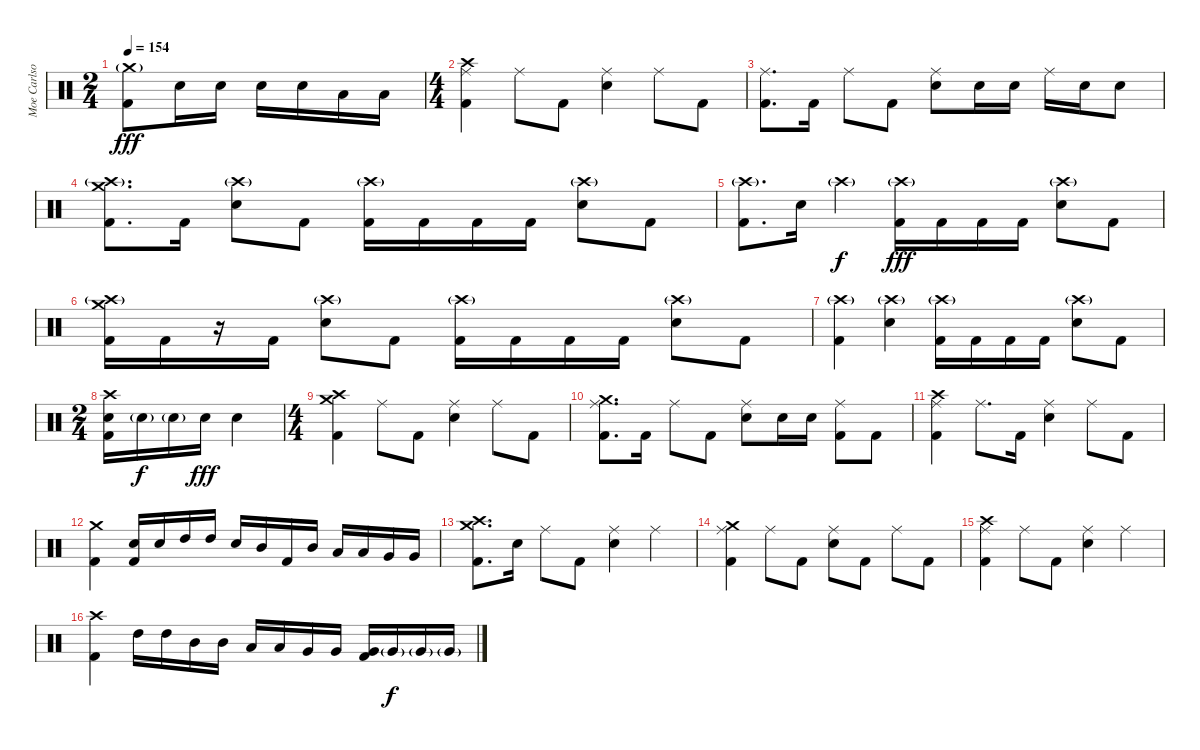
\track ("Moe Carlson" "Moe Carlso") {instrument percussion}
\staff {score}
\articulation defaults
\ts (2 4)
\tempo 154
\clef neutral
\ks c
("Crash medium (hit)"{g} "Kick (hit) 2").8{dy fff} "Electric Snare (hit)".16 "Electric Snare (hit)".16 "Electric Snare (hit)".16 "Electric Snare (hit)".16 "Low Tom (hit)".16 "Low Tom (hit)".16 |
\ts (4 4)
("Crash high (hit)" "Ride (middle)" "Kick (hit) 2").4 "Ride (middle)".8 "Kick (hit) 2".8 ("Ride (middle)" "Electric Snare (hit)").4 "Ride (middle)".8 "Kick (hit) 2".8 |
("Ride (middle)" "Kick (hit) 2").8{d} "Kick (hit) 2".16 "Ride (middle)".8 "Kick (hit) 2".8 ("Ride (middle)" "Electric Snare (hit)").8 "Electric Snare (hit)".16 "Electric Snare (hit)".16 "Ride (middle)".16 "Electric Snare (hit)".16 "Electric Snare (hit)".8 |
("Crash high (hit)"{g} "Crash medium (hit)" "Kick (hit) 2").8{d} "Kick (hit) 2".16 ("Crash high (hit)"{g} "Electric Snare (hit)").8 "Kick (hit) 2".8 ("Crash high (hit)"{g} "Kick (hit) 2").16 "Kick (hit) 2".16 "Kick (hit) 2".16 "Kick (hit) 2".16 ("Crash high (hit)"{g} "Electric Snare (hit)").8 "Kick (hit) 2".8 |
("Crash high (hit)"{g} "Kick (hit) 2").8{d} "Electric Snare (hit)".16 "Crash high (hit)"{g}.4{dy f} ("Crash high (hit)"{g} "Kick (hit) 2").16{dy fff} "Kick (hit) 2".16 "Kick (hit) 2".16 "Kick (hit) 2".16 ("Crash high (hit)"{g} "Electric Snare (hit)").8 "Kick (hit) 2".8 |
("Crash high (hit)"{g} "Crash medium (hit)" "Kick (hit) 2").16 "Kick (hit) 2".16 r.16 "Kick (hit) 2".16 ("Crash high (hit)"{g} "Electric Snare (hit)").8 "Kick (hit) 2".8 ("Crash high (hit)"{g} "Kick (hit) 2").16 "Kick (hit) 2".16 "Kick (hit) 2".16 "Kick (hit) 2".16 ("Crash high (hit)"{g} "Electric Snare (hit)").8 "Kick (hit) 2".8 |
("Crash high (hit)"{g} "Kick (hit) 2").4 ("Crash high (hit)"{g} "Electric Snare (hit)").4 ("Crash high (hit)"{g} "Kick (hit) 2").16 "Kick (hit) 2".16 "Kick (hit) 2".16 "Kick (hit) 2".16 ("Crash high (hit)"{g} "Electric Snare (hit)").8 "Kick (hit) 2".8 |
\ts (2 4)
("Crash high (hit)" "Electric Snare (hit)" "Kick (hit) 2").16 "Electric Snare (hit)"{g}.16{dy f} "Electric Snare (hit)"{g}.16 "Electric Snare (hit)".16{dy fff} "Electric Snare (hit)".4 |
\ts (4 4)
("Crash high (hit)" "Crash medium (hit)" "Kick (hit) 2").4 "Ride (middle)".8 "Kick (hit) 2".8 ("Ride (middle)" "Electric Snare (hit)").4 "Ride (middle)".8 "Kick (hit) 2".8 |
("Crash medium (hit)" "Ride (middle)" "Kick (hit) 2").8{d} "Kick (hit) 2".16 "Ride (middle)".8 "Kick (hit) 2".8 ("Ride (middle)" "Electric Snare (hit)").8 "Electric Snare (hit)".16 "Electric Snare (hit)".16 ("Ride (middle)" "Kick (hit) 2").8 "Kick (hit) 2".8 |
("Crash high (hit)" "Ride (middle)" "Kick (hit) 2").4 "Ride (middle)".8{d} "Kick (hit) 2".16 ("Ride (middle)" "Electric Snare (hit)").4 "Ride (middle)".8 "Kick (hit) 2".8 |
("Crash medium (hit)" "Kick (hit) 2").4 ("Electric Snare (hit)" "Kick (hit) 2").16 "Electric Snare (hit)".16 "High Tom (hit)".16 "High Tom (hit)".16 "Electric Snare (hit)".16 "Mid Tom (hit)".16 "Kick (hit) 2".16 "Mid Tom (hit)".16 "Low Tom (hit)".16 "Low Tom (hit)".16 "Very Low Tom (hit)".16 "Very Low Tom (hit)".16 |
("Crash high (hit)" "Crash medium (hit)" "Kick (hit) 2").8{d} "Electric Snare (hit)".16 "Ride (middle)".8 "Kick (hit) 2".8 ("Ride (middle)" "Electric Snare (hit)").4 "Ride (middle)".4 |
("Crash medium (hit)" "Ride (middle)" "Kick (hit) 2").4 "Ride (middle)".8 "Kick (hit) 2".8 ("Ride (middle)" "Electric Snare (hit)").8 "Kick (hit) 2".8 "Ride (middle)".8 "Kick (hit) 2".8 |
("Crash high (hit)" "Ride (middle)" "Kick (hit) 2").4 "Ride (middle)".8 "Kick (hit) 2".8 ("Ride (middle)" "Electric Snare (hit)").4 "Ride (middle)".4 |
("Crash high (hit)" "Kick (hit) 2").4 "High Tom (hit)".16 "High Tom (hit)".16 "Mid Tom (hit)".16 "Mid Tom (hit)".16 "Low Tom (hit)".16 "Low Tom (hit)".16 "Very Low Tom (hit)".16 "Very Low Tom (hit)".16 ("Very Low Tom (hit)" "Kick (hit) 2").16 "Very Low Tom (hit)"{g}.16{dy f} "Very Low Tom (hit)"{g}.16 "Very Low Tom (hit)"{g}.16
